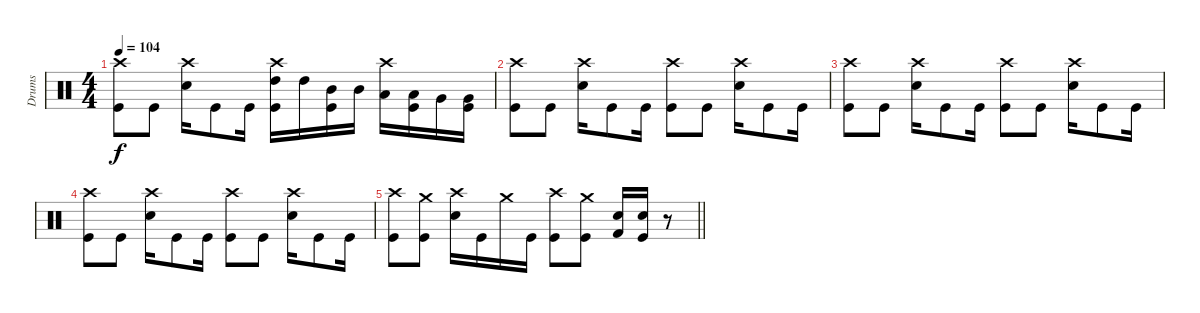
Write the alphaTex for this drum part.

\track ("Drums" "Drums") {instrument percussion}
\staff {score}
\articulation defaults
\ts (4 4)
\tempo 104
\clef neutral
\ks c
("Crash high (hit)" "Kick (hit)").8{dy f} "Kick (hit)".8 ("Crash high (hit)" "Electric Snare (hit)").16 "Kick (hit)".8 "Kick (hit)".16 ("Crash high (hit)" "High Tom (hit)" "Kick (hit)").16 "High Tom (hit)".16 ("Mid Tom (hit)" "Kick (hit)").16 "Mid Tom (hit)".16 ("Crash high (hit)" "Low Tom (hit)").16 ("Low Tom (hit)" "Kick (hit)").16 "Very Low Tom (hit)".16 ("Very Low Tom (hit)" "Kick (hit)").16 |
("Crash high (hit)" "Kick (hit)").8 "Kick (hit)".8 ("Crash high (hit)" "Electric Snare (hit)").16 "Kick (hit)".8 "Kick (hit)".16 ("Crash high (hit)" "Kick (hit)").8 "Kick (hit)".8 ("Crash high (hit)" "Electric Snare (hit)").16 "Kick (hit)".8 "Kick (hit)".16 |
("Crash high (hit)" "Kick (hit)").8 "Kick (hit)".8 ("Crash high (hit)" "Electric Snare (hit)").16 "Kick (hit)".8 "Kick (hit)".16 ("Crash high (hit)" "Kick (hit)").8 "Kick (hit)".8 ("Crash high (hit)" "Electric Snare (hit)").16 "Kick (hit)".8 "Kick (hit)".16 |
("Crash high (hit)" "Kick (hit)").8 "Kick (hit)".8 ("Crash high (hit)" "Electric Snare (hit)").16 "Kick (hit)".8 "Kick (hit)".16 ("Crash high (hit)" "Kick (hit)").8 "Kick (hit)".8 ("Crash high (hit)" "Electric Snare (hit)").16 "Kick (hit)".8 "Kick (hit)".16 |
\barLineRight lightlight
("Crash high (hit)" "Kick (hit)").8 ("Crash medium (hit)" "Kick (hit)").8 ("Crash high (hit)" "Electric Snare (hit)").16 "Kick (hit)".16 "Crash medium (hit)".16 "Kick (hit)".16 ("Crash high (hit)" "Kick (hit)").8 ("Crash medium (hit)" "Kick (hit)").8 ("Electric Snare (hit)" "Kick (hit) 2").16 ("Electric Snare (hit)" "Kick (hit)").16 r.8
